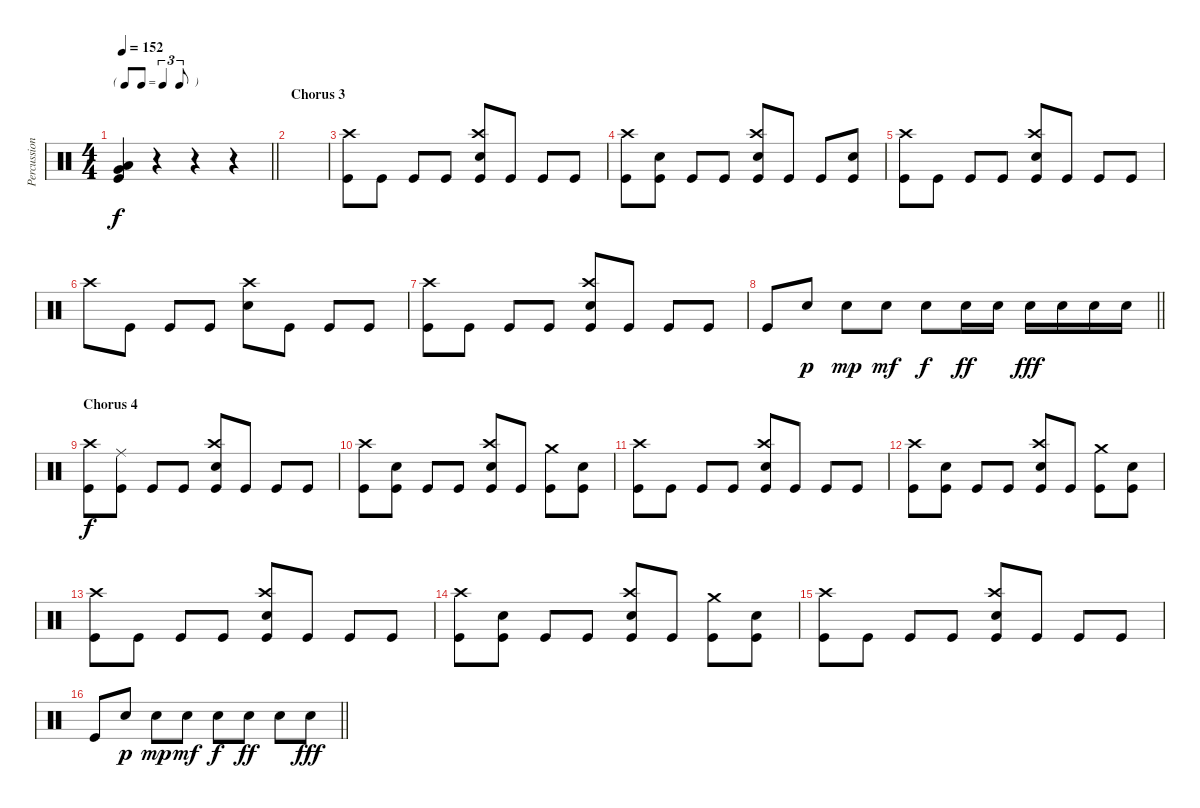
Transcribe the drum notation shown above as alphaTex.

\track ("Percussion" "Percussion") {instrument percussion}
\staff {score}
\articulation defaults
\ts (4 4)
\tf triplet8th
\tempo 152
\clef neutral
\barLineRight lightlight
\ks c
("Very Low Tom (hit)" "Low Floor Tom (hit)" "Kick (hit)").4{dy f} r.4 r.4 r.4 |
\section ("" "Chorus 3")
|
("Crash high (hit)" "Kick (hit)").8 "Kick (hit)".8 "Kick (hit)".8 "Kick (hit)".8 ("Crash high (hit)" "Snare (hit) 2" "Kick (hit)").8 "Kick (hit)".8 "Kick (hit)".8 "Kick (hit)".8 |
("Crash high (hit)" "Kick (hit)").8 ("Snare (hit) 2" "Kick (hit)").8 "Kick (hit)".8 "Kick (hit)".8 ("Snare (hit) 2" "Crash high (hit)" "Kick (hit)").8 "Kick (hit)".8 "Kick (hit)".8 ("Snare (hit) 2" "Kick (hit)").8 |
("Crash high (hit)" "Kick (hit)").8 "Kick (hit)".8 "Kick (hit)".8 "Kick (hit)".8 ("Crash high (hit)" "Snare (hit) 2" "Kick (hit)").8 "Kick (hit)".8 "Kick (hit)".8 "Kick (hit)".8 |
"Crash high (hit)".8 "Kick (hit)".8 "Kick (hit)".8 "Kick (hit)".8 ("Snare (hit) 2" "Crash high (hit)").8 "Kick (hit)".8 "Kick (hit)".8 "Kick (hit)".8 |
("Crash high (hit)" "Kick (hit)").8 "Kick (hit)".8 "Kick (hit)".8 "Kick (hit)".8 ("Crash high (hit)" "Snare (hit) 2" "Kick (hit)").8 "Kick (hit)".8 "Kick (hit)".8 "Kick (hit)".8 |
\barLineRight lightlight "Kick (hit)".8 "Snare (hit) 2".8{dy p} "Snare (hit) 2".8{dy mp} "Snare (hit) 2".8{dy mf} "Snare (hit) 2".8{dy f} "Snare (hit) 2".16{dy ff} "Snare (hit) 2".16 "Snare (hit) 2".16{dy fff} "Snare (hit) 2".16 "Snare (hit) 2".16 "Snare (hit) 2".16
|
\section ("" "Chorus 4")
("Crash high (hit)" "Kick (hit)").8{dy f} ("Ride (middle)" "Kick (hit)").8 "Kick (hit)".8 "Kick (hit)".8 ("Crash high (hit)" "Snare (hit) 2" "Kick (hit)").8 "Kick (hit)".8 "Kick (hit)".8 "Kick (hit)".8 |
("Crash high (hit)" "Kick (hit)").8 ("Snare (hit) 2" "Kick (hit)").8 "Kick (hit)".8 "Kick (hit)".8 ("Snare (hit) 2" "Crash high (hit)" "Kick (hit)").8 "Kick (hit)".8 ("Crash medium (hit)" "Kick (hit)").8 ("Snare (hit) 2" "Kick (hit)").8 |
("Crash high (hit)" "Kick (hit)").8 "Kick (hit)".8 "Kick (hit)".8 "Kick (hit)".8 ("Crash high (hit)" "Snare (hit) 2" "Kick (hit)").8 "Kick (hit)".8 "Kick (hit)".8 "Kick (hit)".8 |
("Crash high (hit)" "Kick (hit)").8 ("Snare (hit) 2" "Kick (hit)").8 "Kick (hit)".8 "Kick (hit)".8 ("Snare (hit) 2" "Crash high (hit)" "Kick (hit)").8 "Kick (hit)".8 ("Crash medium (hit)" "Kick (hit)").8 ("Snare (hit) 2" "Kick (hit)").8 |
("Crash high (hit)" "Kick (hit)").8 "Kick (hit)".8 "Kick (hit)".8 "Kick (hit)".8 ("Crash high (hit)" "Snare (hit) 2" "Kick (hit)").8 "Kick (hit)".8 "Kick (hit)".8 "Kick (hit)".8 |
("Crash high (hit)" "Kick (hit)").8 ("Snare (hit) 2" "Kick (hit)").8 "Kick (hit)".8 "Kick (hit)".8 ("Snare (hit) 2" "Crash high (hit)" "Kick (hit)").8 "Kick (hit)".8 ("Crash medium (hit)" "Kick (hit)").8 ("Snare (hit) 2" "Kick (hit)").8 |
("Crash high (hit)" "Kick (hit)").8 "Kick (hit)".8 "Kick (hit)".8 "Kick (hit)".8 ("Crash high (hit)" "Snare (hit) 2" "Kick (hit)").8 "Kick (hit)".8 "Kick (hit)".8 "Kick (hit)".8 |
\barLineRight lightlight "Kick (hit)".8 "Snare (hit) 2".8{dy p} "Snare (hit) 2".8{dy mp} "Snare (hit) 2".8{dy mf} "Snare (hit) 2".8{dy f} "Snare (hit) 2".8{dy ff} "Snare (hit) 2".8 "Snare (hit) 2".8{dy fff}
